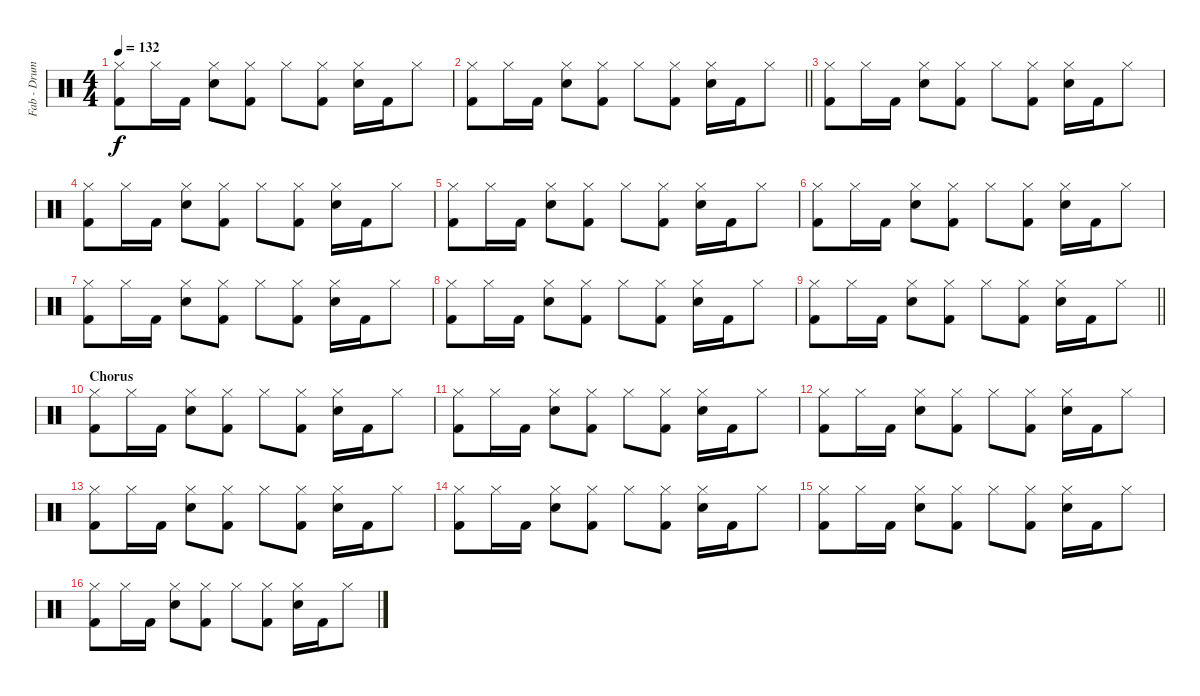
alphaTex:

\track ("Fab - Drums MIDI" "Fab - Drum") {instrument percussion}
\staff {score}
\articulation defaults
\ts (4 4)
\tempo 132
\clef neutral
\ks c
("Hi-Hat (closed)" "Kick (hit) 2").8{dy f} "Hi-Hat (closed)".16 "Kick (hit) 2".16 ("Hi-Hat (closed)" "Snare (hit) 2").8 ("Hi-Hat (closed)" "Kick (hit) 2").8 "Hi-Hat (closed)".8 ("Hi-Hat (closed)" "Kick (hit) 2").8 ("Hi-Hat (closed)" "Snare (hit) 2").16 "Kick (hit) 2".16 "Hi-Hat (closed)".8 |
\barLineRight lightlight
("Hi-Hat (closed)" "Kick (hit) 2").8 "Hi-Hat (closed)".16 "Kick (hit) 2".16 ("Hi-Hat (closed)" "Snare (hit) 2").8 ("Hi-Hat (closed)" "Kick (hit) 2").8 "Hi-Hat (closed)".8 ("Hi-Hat (closed)" "Kick (hit) 2").8 ("Hi-Hat (closed)" "Snare (hit) 2").16 "Kick (hit) 2".16 "Hi-Hat (closed)".8 |
("Hi-Hat (closed)" "Kick (hit) 2").8 "Hi-Hat (closed)".16 "Kick (hit) 2".16 ("Hi-Hat (closed)" "Snare (hit) 2").8 ("Hi-Hat (closed)" "Kick (hit) 2").8 "Hi-Hat (closed)".8 ("Hi-Hat (closed)" "Kick (hit) 2").8 ("Hi-Hat (closed)" "Snare (hit) 2").16 "Kick (hit) 2".16 "Hi-Hat (closed)".8 |
("Hi-Hat (closed)" "Kick (hit) 2").8 "Hi-Hat (closed)".16 "Kick (hit) 2".16 ("Hi-Hat (closed)" "Snare (hit) 2").8 ("Hi-Hat (closed)" "Kick (hit) 2").8 "Hi-Hat (closed)".8 ("Hi-Hat (closed)" "Kick (hit) 2").8 ("Hi-Hat (closed)" "Snare (hit) 2").16 "Kick (hit) 2".16 "Hi-Hat (closed)".8 |
("Hi-Hat (closed)" "Kick (hit) 2").8 "Hi-Hat (closed)".16 "Kick (hit) 2".16 ("Hi-Hat (closed)" "Snare (hit) 2").8 ("Hi-Hat (closed)" "Kick (hit) 2").8 "Hi-Hat (closed)".8 ("Hi-Hat (closed)" "Kick (hit) 2").8 ("Hi-Hat (closed)" "Snare (hit) 2").16 "Kick (hit) 2".16 "Hi-Hat (closed)".8 |
("Hi-Hat (closed)" "Kick (hit) 2").8 "Hi-Hat (closed)".16 "Kick (hit) 2".16 ("Hi-Hat (closed)" "Snare (hit) 2").8 ("Hi-Hat (closed)" "Kick (hit) 2").8 "Hi-Hat (closed)".8 ("Hi-Hat (closed)" "Kick (hit) 2").8 ("Hi-Hat (closed)" "Snare (hit) 2").16 "Kick (hit) 2".16 "Hi-Hat (closed)".8 |
("Hi-Hat (closed)" "Kick (hit) 2").8 "Hi-Hat (closed)".16 "Kick (hit) 2".16 ("Hi-Hat (closed)" "Snare (hit) 2").8 ("Hi-Hat (closed)" "Kick (hit) 2").8 "Hi-Hat (closed)".8 ("Hi-Hat (closed)" "Kick (hit) 2").8 ("Hi-Hat (closed)" "Snare (hit) 2").16 "Kick (hit) 2".16 "Hi-Hat (closed)".8 |
("Hi-Hat (closed)" "Kick (hit) 2").8 "Hi-Hat (closed)".16 "Kick (hit) 2".16 ("Hi-Hat (closed)" "Snare (hit) 2").8 ("Hi-Hat (closed)" "Kick (hit) 2").8 "Hi-Hat (closed)".8 ("Hi-Hat (closed)" "Kick (hit) 2").8 ("Hi-Hat (closed)" "Snare (hit) 2").16 "Kick (hit) 2".16 "Hi-Hat (closed)".8 |
\barLineRight lightlight
("Hi-Hat (closed)" "Kick (hit) 2").8 "Hi-Hat (closed)".16 "Kick (hit) 2".16 ("Hi-Hat (closed)" "Snare (hit) 2").8 ("Hi-Hat (closed)" "Kick (hit) 2").8 "Hi-Hat (closed)".8 ("Hi-Hat (closed)" "Kick (hit) 2").8 ("Hi-Hat (closed)" "Snare (hit) 2").16 "Kick (hit) 2".16 "Hi-Hat (closed)".8 |
\section ("" "Chorus")
("Hi-Hat (closed)" "Kick (hit) 2").8 "Hi-Hat (closed)".16 "Kick (hit) 2".16 ("Hi-Hat (closed)" "Snare (hit) 2").8 ("Hi-Hat (closed)" "Kick (hit) 2").8 "Hi-Hat (closed)".8 ("Hi-Hat (closed)" "Kick (hit) 2").8 ("Hi-Hat (closed)" "Snare (hit) 2").16 "Kick (hit) 2".16 "Hi-Hat (closed)".8 |
("Hi-Hat (closed)" "Kick (hit) 2").8 "Hi-Hat (closed)".16 "Kick (hit) 2".16 ("Hi-Hat (closed)" "Snare (hit) 2").8 ("Hi-Hat (closed)" "Kick (hit) 2").8 "Hi-Hat (closed)".8 ("Hi-Hat (closed)" "Kick (hit) 2").8 ("Hi-Hat (closed)" "Snare (hit) 2").16 "Kick (hit) 2".16 "Hi-Hat (closed)".8 |
("Hi-Hat (closed)" "Kick (hit) 2").8 "Hi-Hat (closed)".16 "Kick (hit) 2".16 ("Hi-Hat (closed)" "Snare (hit) 2").8 ("Hi-Hat (closed)" "Kick (hit) 2").8 "Hi-Hat (closed)".8 ("Hi-Hat (closed)" "Kick (hit) 2").8 ("Hi-Hat (closed)" "Snare (hit) 2").16 "Kick (hit) 2".16 "Hi-Hat (closed)".8 |
("Hi-Hat (closed)" "Kick (hit) 2").8 "Hi-Hat (closed)".16 "Kick (hit) 2".16 ("Hi-Hat (closed)" "Snare (hit) 2").8 ("Hi-Hat (closed)" "Kick (hit) 2").8 "Hi-Hat (closed)".8 ("Hi-Hat (closed)" "Kick (hit) 2").8 ("Hi-Hat (closed)" "Snare (hit) 2").16 "Kick (hit) 2".16 "Hi-Hat (closed)".8 |
("Hi-Hat (closed)" "Kick (hit) 2").8 "Hi-Hat (closed)".16 "Kick (hit) 2".16 ("Hi-Hat (closed)" "Snare (hit) 2").8 ("Hi-Hat (closed)" "Kick (hit) 2").8 "Hi-Hat (closed)".8 ("Hi-Hat (closed)" "Kick (hit) 2").8 ("Hi-Hat (closed)" "Snare (hit) 2").16 "Kick (hit) 2".16 "Hi-Hat (closed)".8 |
("Hi-Hat (closed)" "Kick (hit) 2").8 "Hi-Hat (closed)".16 "Kick (hit) 2".16 ("Hi-Hat (closed)" "Snare (hit) 2").8 ("Hi-Hat (closed)" "Kick (hit) 2").8 "Hi-Hat (closed)".8 ("Hi-Hat (closed)" "Kick (hit) 2").8 ("Hi-Hat (closed)" "Snare (hit) 2").16 "Kick (hit) 2".16 "Hi-Hat (closed)".8 |
("Hi-Hat (closed)" "Kick (hit) 2").8 "Hi-Hat (closed)".16 "Kick (hit) 2".16 ("Hi-Hat (closed)" "Snare (hit) 2").8 ("Hi-Hat (closed)" "Kick (hit) 2").8 "Hi-Hat (closed)".8 ("Hi-Hat (closed)" "Kick (hit) 2").8 ("Hi-Hat (closed)" "Snare (hit) 2").16 "Kick (hit) 2".16 "Hi-Hat (closed)".8
